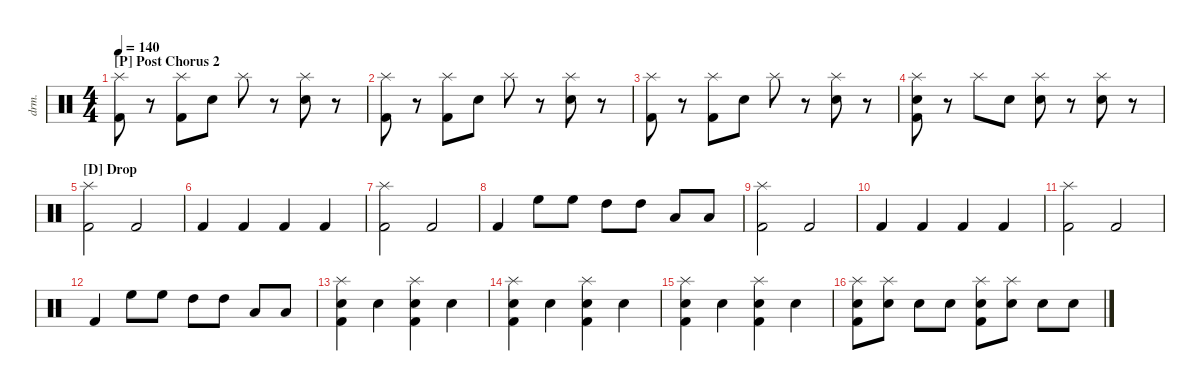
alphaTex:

\defaultSystemsLayout 4
\hideDynamics
\bracketExtendMode nobrackets
\otherSystemsTrackNameOrientation horizontal
\track ("Drumkit" "drm.") {instrument percussion}
\staff {score}
\articulation defaults
\ts (4 4)
\section ("P" "Post Chorus 2")
\tempo 140
\clef neutral
\ks c
("Kick (hit) 2" "Splash (hit)").8{dy mf beam Down} r.8{beam Down} ("Kick (hit) 2" "Splash (hit)").8{beam Down} "Snare (hit) 2".8{beam Down} "Splash (hit)".8{beam Down} r.8{beam Down} ("Snare (hit) 2" "Splash (hit)").8{beam Down} r.8{beam Down} |
("Kick (hit) 2" "Splash (hit)").8{beam Down} r.8{beam Down} ("Kick (hit) 2" "Splash (hit)").8{beam Down} "Snare (hit) 2".8{beam Down} "Splash (hit)".8{beam Down} r.8{beam Down} ("Snare (hit) 2" "Splash (hit)").8{beam Down} r.8{beam Down} |
("Kick (hit) 2" "Splash (hit)").8{beam Down} r.8{beam Down} ("Kick (hit) 2" "Splash (hit)").8{beam Down} "Snare (hit) 2".8{beam Down} "Splash (hit)".8{beam Down} r.8{beam Down} ("Snare (hit) 2" "Splash (hit)").8{beam Down} r.8{beam Down} |
("Splash (hit)" "Snare (hit) 2" "Kick (hit) 2").8{beam Down} r.8{beam Down} "Splash (hit)".8{beam Down} "Snare (hit) 2".8{beam Down} ("Splash (hit)" "Snare (hit) 2").8{beam Down} r.8{beam Down} ("Snare (hit) 2" "Splash (hit)").8{beam Down} r.8{beam Down} |
\section ("D" "Drop")
("Kick (hit) 2" "Splash (hit)").2{beam Down} "Kick (hit) 2".2{beam Up} |
"Kick (hit) 2".4{beam Up} "Kick (hit) 2".4{beam Up} "Kick (hit) 2".4{beam Up} "Kick (hit) 2".4{beam Up} |
("Kick (hit) 2" "Splash (hit)").2{beam Down} "Kick (hit) 2".2{beam Up} |
"Kick (hit) 2".4{beam Up} "High Floor Tom (hit)".8{beam Down} "High Floor Tom (hit)".8{beam Down} "High Tom (hit)".8{beam Down} "High Tom (hit)".8{beam Down} "Low Tom (hit)".8{beam Up} "Low Tom (hit)".8{beam Up} |
("Kick (hit) 2" "Splash (hit)").2{beam Down} "Kick (hit) 2".2{beam Up} |
"Kick (hit) 2".4{beam Up} "Kick (hit) 2".4{beam Up} "Kick (hit) 2".4{beam Up} "Kick (hit) 2".4{beam Up} |
("Kick (hit) 2" "Splash (hit)").2{beam Down} "Kick (hit) 2".2{beam Up} |
"Kick (hit) 2".4{beam Up} "High Floor Tom (hit)".8{beam Down} "High Floor Tom (hit)".8{beam Down} "High Tom (hit)".8{beam Down} "High Tom (hit)".8{beam Down} "Low Tom (hit)".8{beam Up} "Low Tom (hit)".8{beam Up} |
("Kick (hit) 2" "Splash (hit)" "Snare (hit) 2").4{beam Down} "Snare (hit) 2".4{beam Down} ("Kick (hit) 2" "Splash (hit)" "Snare (hit) 2").4{beam Down} "Snare (hit) 2".4{beam Down} |
("Kick (hit) 2" "Splash (hit)" "Snare (hit) 2").4{beam Down} "Snare (hit) 2".4{beam Down} ("Kick (hit) 2" "Splash (hit)" "Snare (hit) 2").4{beam Down} "Snare (hit) 2".4{beam Down} |
("Kick (hit) 2" "Splash (hit)" "Snare (hit) 2").4{beam Down} "Snare (hit) 2".4{beam Down} ("Kick (hit) 2" "Splash (hit)" "Snare (hit) 2").4{beam Down} "Snare (hit) 2".4{beam Down} |
("Kick (hit) 2" "Splash (hit)" "Snare (hit) 2").8{beam Down} ("Splash (hit)" "Snare (hit) 2").8{beam Down} "Snare (hit) 2".8{beam Down} "Snare (hit) 2".8{beam Down} ("Splash (hit)" "Snare (hit) 2" "Kick (hit) 2").8{beam Down} ("Splash (hit)" "Snare (hit) 2").8{beam Down} "Snare (hit) 2".8{beam Down} "Snare (hit) 2".8{beam Down}
